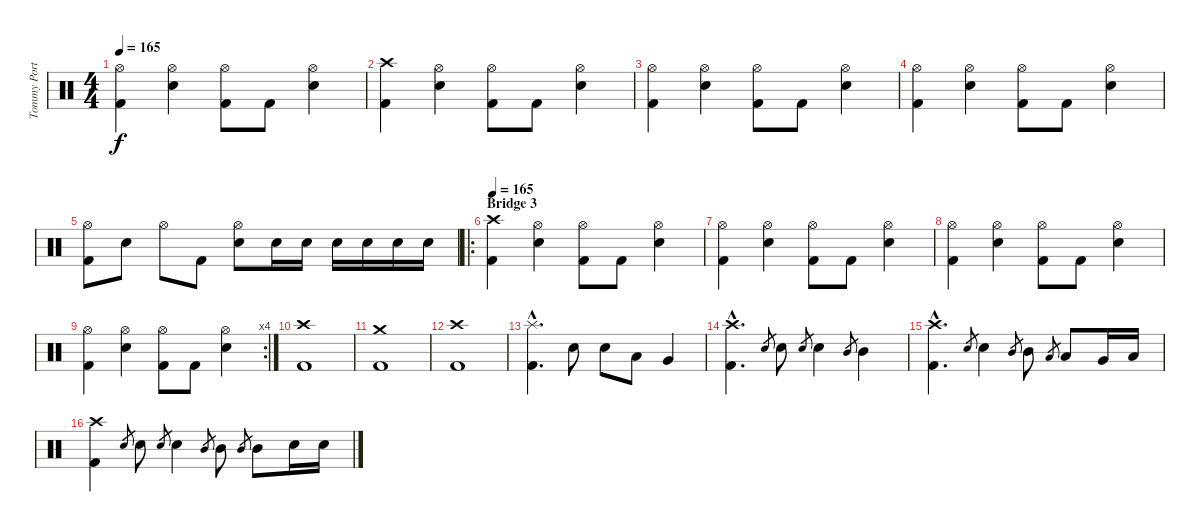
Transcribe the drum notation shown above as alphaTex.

\track ("Tommy Portimo" "Tommy Port") {instrument percussion}
\staff {score}
\articulation defaults
\ts (4 4)
\tempo 165
\clef neutral
\ks c
("Hi-Hat (open)" "Kick (hit) 2").4{dy f} ("Hi-Hat (open)" "Snare (hit) 2").4 ("Hi-Hat (open)" "Kick (hit) 2").8 "Kick (hit) 2".8 ("Hi-Hat (open)" "Snare (hit) 2").4 |
("Crash high (hit)" "Kick (hit) 2").4 ("Hi-Hat (open)" "Snare (hit) 2").4 ("Hi-Hat (open)" "Kick (hit) 2").8 "Kick (hit) 2".8 ("Hi-Hat (open)" "Snare (hit) 2").4 |
("Hi-Hat (open)" "Kick (hit) 2").4 ("Hi-Hat (open)" "Snare (hit) 2").4 ("Hi-Hat (open)" "Kick (hit) 2").8 "Kick (hit) 2".8 ("Hi-Hat (open)" "Snare (hit) 2").4 |
("Hi-Hat (open)" "Kick (hit) 2").4 ("Hi-Hat (open)" "Snare (hit) 2").4 ("Hi-Hat (open)" "Kick (hit) 2").8 "Kick (hit) 2".8 ("Hi-Hat (open)" "Snare (hit) 2").4 |
("Hi-Hat (open)" "Kick (hit) 2").8 "Snare (hit) 2".8 "Hi-Hat (open)".8 "Kick (hit) 2".8 ("Hi-Hat (open)" "Snare (hit) 2").8 "Snare (hit) 2".16 "Snare (hit) 2".16 "Snare (hit) 2".16 "Snare (hit) 2".16 "Snare (hit) 2".16 "Snare (hit) 2".16 |
\ro
\section ("" "Bridge 3")
\tempo 165
("Crash high (hit)" "Kick (hit) 2").4 ("Hi-Hat (open)" "Snare (hit) 2").4 ("Hi-Hat (open)" "Kick (hit) 2").8 "Kick (hit) 2".8 ("Hi-Hat (open)" "Snare (hit) 2").4 |
("Hi-Hat (open)" "Kick (hit) 2").4 ("Hi-Hat (open)" "Snare (hit) 2").4 ("Hi-Hat (open)" "Kick (hit) 2").8 "Kick (hit) 2".8 ("Hi-Hat (open)" "Snare (hit) 2").4 |
("Hi-Hat (open)" "Kick (hit) 2").4 ("Hi-Hat (open)" "Snare (hit) 2").4 ("Hi-Hat (open)" "Kick (hit) 2").8 "Kick (hit) 2".8 ("Hi-Hat (open)" "Snare (hit) 2").4 |
\rc 4
("Hi-Hat (open)" "Kick (hit) 2").4 ("Hi-Hat (open)" "Snare (hit) 2").4 ("Hi-Hat (open)" "Kick (hit) 2").8 "Kick (hit) 2".8 ("Hi-Hat (open)" "Snare (hit) 2").4 |
("Crash high (hit)" "Kick (hit) 2").1 |
("Crash medium (hit)" "Kick (hit) 2").1 |
("Crash high (hit)" "Kick (hit) 2").1 |
("Splash (hit)"{hac} "Kick (hit) 2"{hac}).4{d} "Snare (hit) 2".8 "Snare (hit) 2".8 "Low Tom (hit)".8 "Very Low Tom (hit)".4 |
("Crash high (hit)"{hac} "Kick (hit) 2"{hac}).4{d} "Snare (hit) 2".8{gr} "Snare (hit) 2".8 "Snare (hit) 2".8{gr} "Snare (hit) 2".4 "Mid Tom (hit)".8{gr} "Mid Tom (hit)".4 |
("Crash high (hit)"{hac} "Kick (hit) 2"{hac}).4{d} "Snare (hit) 2".8{gr} "Snare (hit) 2".4 "Mid Tom (hit)".8{gr} "Mid Tom (hit)".8 "Low Tom (hit)".8{gr} "Low Tom (hit)".8 "Very Low Tom (hit)".16 "Low Floor Tom (hit)".16 |
("Crash high (hit)" "Kick (hit) 2").4 "Snare (hit) 2".8{gr} "Snare (hit) 2".8 "Snare (hit) 2".8{gr} "Snare (hit) 2".4 "Mid Tom (hit)".8{gr} "Mid Tom (hit)".8 "Mid Tom (hit)".8{gr} "Mid Tom (hit)".8 "Snare (hit) 2".16 "Snare (hit) 2".16
